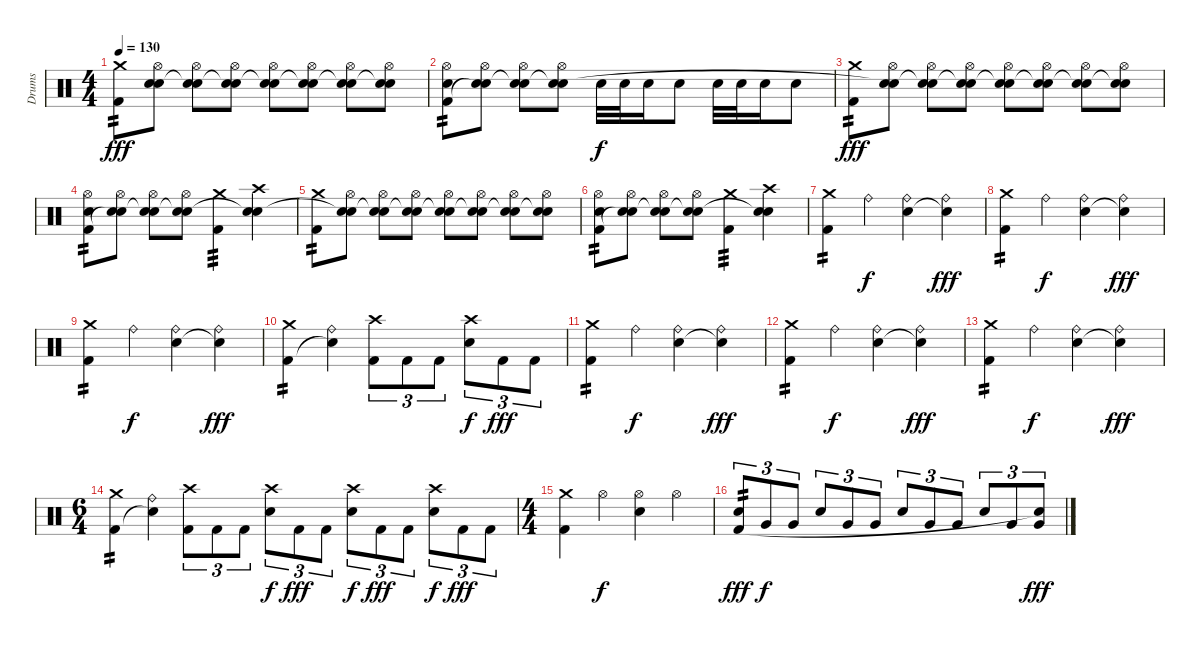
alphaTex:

\track ("Drums" "Drums") {instrument percussion}
\staff {score}
\articulation defaults
\ts (4 4)
\tempo 130
\clef neutral
\ks c
("Crash medium (hit)" "Kick (hit) 2").8{tp 2 dy fff} ("Hi-Hat (open)" "Electric Snare (hit)" "Snare (hit)"{t}).8 ("Hi-Hat (open)" "Electric Snare (hit)" "Snare (hit)"{t}).8 ("Hi-Hat (open)" "Electric Snare (hit)" "Snare (hit)"{t}).8 ("Hi-Hat (open)" "Electric Snare (hit)" "Snare (hit)"{t}).8 ("Hi-Hat (open)" "Electric Snare (hit)" "Snare (hit)"{t}).8 ("Hi-Hat (open)" "Electric Snare (hit)" "Snare (hit)"{t}).8 ("Hi-Hat (open)" "Electric Snare (hit)" "Snare (hit)"{t}).8 |
("Hi-Hat (open)" "Electric Snare (hit)" "Kick (hit) 2").8{tp 2} ("Hi-Hat (open)" "Electric Snare (hit)" "Snare (hit)"{t}).8 ("Hi-Hat (open)" "Electric Snare (hit)" "Snare (hit)"{t}).8 ("Hi-Hat (open)" "Electric Snare (hit)" "Snare (hit)"{t}).8 "Electric Snare (hit)".32{dy f} "Electric Snare (hit)".32 "Electric Snare (hit)".16 "Electric Snare (hit)".8 "Electric Snare (hit)".32 "Electric Snare (hit)".32 "Electric Snare (hit)".16 "Electric Snare (hit)".8 |
("Crash medium (hit)" "Kick (hit) 2").8{tp 2 dy fff} ("Hi-Hat (open)" "Electric Snare (hit)" "Snare (hit)"{t}).8 ("Hi-Hat (open)" "Electric Snare (hit)" "Snare (hit)"{t}).8 ("Hi-Hat (open)" "Electric Snare (hit)" "Snare (hit)"{t}).8 ("Hi-Hat (open)" "Electric Snare (hit)" "Snare (hit)"{t}).8 ("Hi-Hat (open)" "Electric Snare (hit)" "Snare (hit)"{t}).8 ("Hi-Hat (open)" "Electric Snare (hit)" "Snare (hit)"{t}).8 ("Hi-Hat (open)" "Electric Snare (hit)" "Snare (hit)"{t}).8 |
("Hi-Hat (open)" "Electric Snare (hit)" "Kick (hit) 2").8{tp 2} ("Hi-Hat (open)" "Electric Snare (hit)" "Snare (hit)"{t}).8 ("Hi-Hat (open)" "Electric Snare (hit)" "Snare (hit)"{t}).8 ("Hi-Hat (open)" "Electric Snare (hit)" "Snare (hit)"{t}).8 ("Crash medium (hit)" "Kick (hit) 2").4{tp 3} ("Crash high (hit)" "Electric Snare (hit)" "Snare (hit)"{t}).4 |
("Crash medium (hit)" "Kick (hit) 2").8{tp 2} ("Hi-Hat (open)" "Electric Snare (hit)" "Snare (hit)"{t}).8 ("Hi-Hat (open)" "Electric Snare (hit)" "Snare (hit)"{t}).8 ("Hi-Hat (open)" "Electric Snare (hit)" "Snare (hit)"{t}).8 ("Hi-Hat (open)" "Electric Snare (hit)" "Snare (hit)"{t}).8 ("Hi-Hat (open)" "Electric Snare (hit)" "Snare (hit)"{t}).8 ("Hi-Hat (open)" "Electric Snare (hit)" "Snare (hit)"{t}).8 ("Hi-Hat (open)" "Electric Snare (hit)" "Snare (hit)"{t}).8 |
("Hi-Hat (open)" "Electric Snare (hit)" "Kick (hit) 2").8{tp 2} ("Hi-Hat (open)" "Electric Snare (hit)" "Snare (hit)"{t}).8 ("Hi-Hat (open)" "Electric Snare (hit)" "Snare (hit)"{t}).8 ("Hi-Hat (open)" "Electric Snare (hit)" "Snare (hit)"{t}).8 ("Crash medium (hit)" "Kick (hit) 2").4{tp 3} ("Crash high (hit)" "Electric Snare (hit)" "Snare (hit)"{t}).4 |
("Crash medium (hit)" "Kick (hit) 2").4{tp 2} "Ride (bell)".4{dy f} ("Ride (bell)" "Electric Snare (hit)").4 ("Ride (bell)" "Snare (hit)"{t}).4{dy fff} |
("Crash medium (hit)" "Kick (hit) 2").4{tp 2} "Ride (bell)".4{dy f} ("Ride (bell)" "Electric Snare (hit)").4 ("Ride (bell)" "Snare (hit)"{t}).4{dy fff} |
("Crash medium (hit)" "Kick (hit) 2").4{tp 2} "Ride (bell)".4{dy f} ("Ride (bell)" "Electric Snare (hit)").4 ("Ride (bell)" "Snare (hit)"{t}).4{dy fff} |
("Crash medium (hit)" "Kick (hit) 2").4{tp 2} ("Ride (bell)" "Snare (hit)"{t}).4 ("Crash high (hit)" "Kick (hit) 2").8{tu (3 2)} "Kick (hit) 2".8{tu (3 2)} "Kick (hit) 2".8{tu (3 2)} ("Crash high (hit)" "Electric Snare (hit)").8{tu (3 2) dy f} "Kick (hit) 2".8{tu (3 2) dy fff} "Kick (hit) 2".8{tu (3 2)} |
("Crash medium (hit)" "Kick (hit) 2").4{tp 2} "Ride (bell)".4{dy f} ("Ride (bell)" "Electric Snare (hit)").4 ("Ride (bell)" "Snare (hit)"{t}).4{dy fff} |
("Crash medium (hit)" "Kick (hit) 2").4{tp 2} "Ride (bell)".4{dy f} ("Ride (bell)" "Electric Snare (hit)").4 ("Ride (bell)" "Snare (hit)"{t}).4{dy fff} |
("Crash medium (hit)" "Kick (hit) 2").4{tp 2} "Ride (bell)".4{dy f} ("Ride (bell)" "Electric Snare (hit)").4 ("Ride (bell)" "Snare (hit)"{t}).4{dy fff} |
\ts (6 4)
("Crash medium (hit)" "Kick (hit) 2").4{tp 2} ("Ride (bell)" "Snare (hit)"{t}).4 ("Crash high (hit)" "Kick (hit) 2").8{tu (3 2)} "Kick (hit) 2".8{tu (3 2)} "Kick (hit) 2".8{tu (3 2)} ("Crash high (hit)" "Electric Snare (hit)").8{tu (3 2) dy f} "Kick (hit) 2".8{tu (3 2) dy fff} "Kick (hit) 2".8{tu (3 2)} ("Crash high (hit)" "Electric Snare (hit)").8{tu (3 2) dy f} "Kick (hit) 2".8{tu (3 2) dy fff} "Kick (hit) 2".8{tu (3 2)} ("Crash high (hit)" "Electric Snare (hit)").8{tu (3 2) dy f} "Kick (hit) 2".8{tu (3 2) dy fff} "Kick (hit) 2".8{tu (3 2)} |
\ts (4 4)
("Crash medium (hit)" "Kick (hit) 2").4 "Hi-Hat (open)".4{dy f} ("Hi-Hat (open)" "Electric Snare (hit)").4 "Hi-Hat (open)".4 |
("Electric Snare (hit)" "Kick (hit) 2").8{tu (3 2) tp 2 dy fff} "Very Low Tom (hit)".8{tu (3 2) dy f} "Very Low Tom (hit)".8{tu (3 2)} "Electric Snare (hit)".8{tu (3 2)} "Very Low Tom (hit)".8{tu (3 2)} "Very Low Tom (hit)".8{tu (3 2)} "Electric Snare (hit)".8{tu (3 2)} "Very Low Tom (hit)".8{tu (3 2)} "Very Low Tom (hit)".8{tu (3 2)} "Electric Snare (hit)".8{tu (3 2)} "Very Low Tom (hit)".8{tu (3 2)} ("Very Low Tom (hit)" "Snare (hit)"{t}).8{tu (3 2) dy fff}
